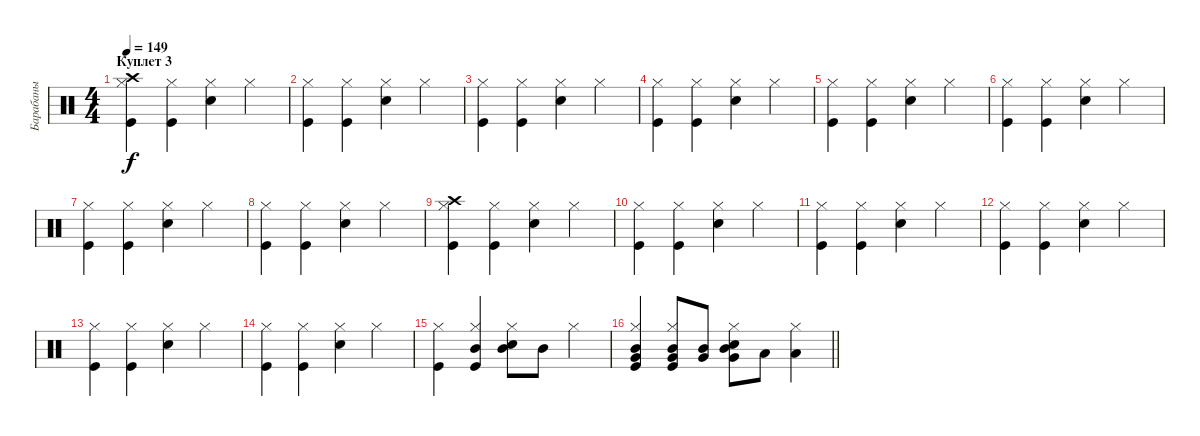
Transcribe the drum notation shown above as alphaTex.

\track ("Барабаны" "Барабаны") {instrument percussion}
\staff {score}
\articulation defaults
\ts (4 4)
\section ("" "Куплет 3")
\tempo 149
\clef neutral
\ks c
("Kick (hit)" "Hi-Hat (closed)" "Crash high (hit)").4{dy f} ("Kick (hit)" "Hi-Hat (closed)").4 ("Snare (hit) 2" "Hi-Hat (closed)").4 "Hi-Hat (closed)".4 |
("Kick (hit)" "Hi-Hat (closed)").4 ("Kick (hit)" "Hi-Hat (closed)").4 ("Snare (hit) 2" "Hi-Hat (closed)").4 "Hi-Hat (closed)".4 |
("Kick (hit)" "Hi-Hat (closed)").4 ("Kick (hit)" "Hi-Hat (closed)").4 ("Snare (hit) 2" "Hi-Hat (closed)").4 "Hi-Hat (closed)".4 |
("Kick (hit)" "Hi-Hat (closed)").4 ("Kick (hit)" "Hi-Hat (closed)").4 ("Snare (hit) 2" "Hi-Hat (closed)").4 "Hi-Hat (closed)".4 |
("Kick (hit)" "Hi-Hat (closed)").4 ("Kick (hit)" "Hi-Hat (closed)").4 ("Snare (hit) 2" "Hi-Hat (closed)").4 "Hi-Hat (closed)".4 |
("Kick (hit)" "Hi-Hat (closed)").4 ("Kick (hit)" "Hi-Hat (closed)").4 ("Snare (hit) 2" "Hi-Hat (closed)").4 "Hi-Hat (closed)".4 |
("Kick (hit)" "Hi-Hat (closed)").4 ("Kick (hit)" "Hi-Hat (closed)").4 ("Snare (hit) 2" "Hi-Hat (closed)").4 "Hi-Hat (closed)".4 |
("Kick (hit)" "Hi-Hat (closed)").4 ("Kick (hit)" "Hi-Hat (closed)").4 ("Snare (hit) 2" "Hi-Hat (closed)").4 "Hi-Hat (closed)".4 |
("Kick (hit)" "Hi-Hat (closed)" "Crash high (hit)").4 ("Kick (hit)" "Hi-Hat (closed)").4 ("Snare (hit) 2" "Hi-Hat (closed)").4 "Hi-Hat (closed)".4 |
("Kick (hit)" "Hi-Hat (closed)").4 ("Kick (hit)" "Hi-Hat (closed)").4 ("Snare (hit) 2" "Hi-Hat (closed)").4 "Hi-Hat (closed)".4 |
("Kick (hit)" "Hi-Hat (closed)").4 ("Kick (hit)" "Hi-Hat (closed)").4 ("Snare (hit) 2" "Hi-Hat (closed)").4 "Hi-Hat (closed)".4 |
("Kick (hit)" "Hi-Hat (closed)").4 ("Kick (hit)" "Hi-Hat (closed)").4 ("Snare (hit) 2" "Hi-Hat (closed)").4 "Hi-Hat (closed)".4 |
("Kick (hit)" "Hi-Hat (closed)").4 ("Kick (hit)" "Hi-Hat (closed)").4 ("Snare (hit) 2" "Hi-Hat (closed)").4 "Hi-Hat (closed)".4 |
("Kick (hit)" "Hi-Hat (closed)").4 ("Kick (hit)" "Hi-Hat (closed)").4 ("Snare (hit) 2" "Hi-Hat (closed)").4 "Hi-Hat (closed)".4 |
("Kick (hit)" "Hi-Hat (closed)").4 ("Kick (hit)" "Hi-Hat (closed)" "Mid Tom (hit)").4 ("Snare (hit) 2" "Hi-Hat (closed)" "Mid Tom (hit)").8 "Mid Tom (hit)".8 "Hi-Hat (closed)".4 |
\barLineRight lightlight
("Kick (hit)" "Hi-Hat (closed)" "Very Low Tom (hit)" "Mid Tom (hit)").4 ("Kick (hit)" "Hi-Hat (closed)" "Very Low Tom (hit)" "Mid Tom (hit)").8 ("Very Low Tom (hit)" "Mid Tom (hit)").8 ("Snare (hit) 2" "Hi-Hat (closed)" "Very Low Tom (hit)" "Mid Tom (hit)").8 "Low Floor Tom (hit)".8 ("Hi-Hat (closed)" "Low Floor Tom (hit)").4
